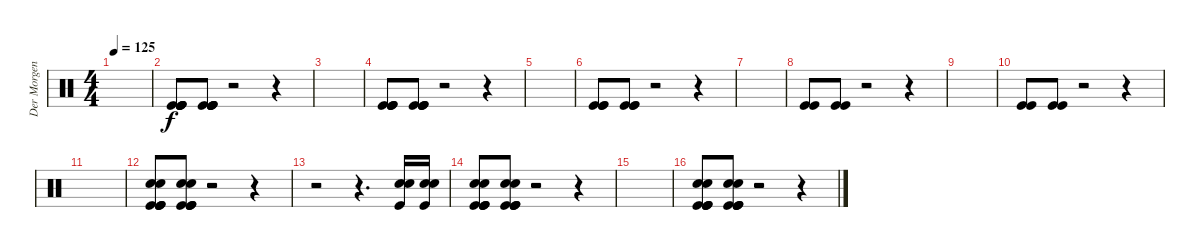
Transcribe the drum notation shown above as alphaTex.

\track ("Der Morgenstern" "Der Morgen") {instrument percussion}
\staff {score}
\articulation defaults
\ts (4 4)
\tempo 125
\clef neutral
\ks c
|
("Kick (hit)" "Kick (hit)" "Kick (hit)" "Kick (hit)" "Kick (hit)").8 ("Kick (hit)" "Kick (hit)" "Kick (hit)" "Kick (hit)" "Kick (hit)").8 r.2 r.4 |
|
("Kick (hit)" "Kick (hit)" "Kick (hit)" "Kick (hit)").8 ("Kick (hit)" "Kick (hit)" "Kick (hit)" "Kick (hit)").8 r.2 r.4 |
|
("Kick (hit)" "Kick (hit)" "Kick (hit)").8 ("Kick (hit)" "Kick (hit)" "Kick (hit)").8 r.2 r.4 |
|
("Kick (hit)" "Kick (hit)").8 ("Kick (hit)" "Kick (hit)").8 r.2 r.4 |
|
("Kick (hit)" "Kick (hit)").8 ("Kick (hit)" "Kick (hit)").8 r.2 r.4 |
|
("Snare (hit) 2" "Snare (hit) 2" "Kick (hit)" "Kick (hit)" "Kick (hit)" "Kick (hit)").8 ("Snare (hit) 2" "Snare (hit) 2" "Kick (hit)" "Kick (hit)" "Kick (hit)" "Kick (hit)").8 r.2 r.4 |
r.2 r.4{d} ("Snare (hit) 2" "Snare (hit) 2" "Kick (hit)").16 ("Snare (hit) 2" "Snare (hit) 2" "Kick (hit)").16 |
("Snare (hit) 2" "Snare (hit) 2" "Kick (hit)" "Kick (hit)" "Kick (hit)" "Kick (hit)").8 ("Snare (hit) 2" "Snare (hit) 2" "Kick (hit)" "Kick (hit)" "Kick (hit)" "Kick (hit)").8 r.2 r.4 |
|
("Snare (hit) 2" "Snare (hit) 2" "Kick (hit)" "Kick (hit)" "Kick (hit)" "Kick (hit)").8 ("Snare (hit) 2" "Snare (hit) 2" "Kick (hit)" "Kick (hit)" "Kick (hit)" "Kick (hit)").8 r.2 r.4
